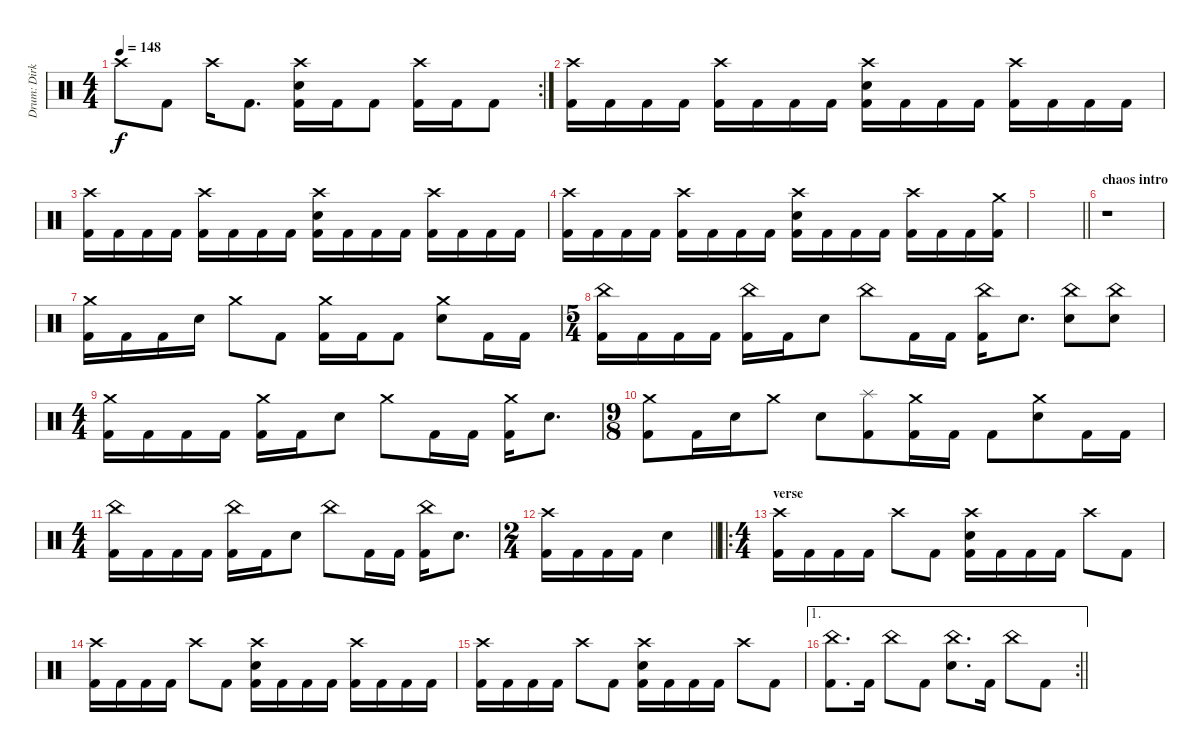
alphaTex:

\track ("Drum: Dirk" "Drum: Dirk") {instrument percussion}
\staff {score}
\articulation defaults
\rc 2
\ts (4 4)
\tempo 148
\clef neutral
\ks c "Crash high (hit)".8{dy f} "Kick (hit) 2".8 "Crash high (hit)".16 "Kick (hit) 2".8{d}
("Crash high (hit)" "Electric Snare (hit)" "Kick (hit) 2").16 "Kick (hit) 2".16 "Kick (hit) 2".8 ("Crash high (hit)" "Kick (hit) 2").16 "Kick (hit) 2".16 "Kick (hit) 2".8 |
("Crash high (hit)" "Kick (hit) 2").16 "Kick (hit) 2".16 "Kick (hit) 2".16 "Kick (hit) 2".16 ("Crash high (hit)" "Kick (hit) 2").16 "Kick (hit) 2".16 "Kick (hit) 2".16 "Kick (hit) 2".16 ("Crash high (hit)" "Electric Snare (hit)" "Kick (hit) 2").16 "Kick (hit) 2".16 "Kick (hit) 2".16 "Kick (hit) 2".16 ("Crash high (hit)" "Kick (hit) 2").16 "Kick (hit) 2".16 "Kick (hit) 2".16 "Kick (hit) 2".16 |
("Crash high (hit)" "Kick (hit) 2").16 "Kick (hit) 2".16 "Kick (hit) 2".16 "Kick (hit) 2".16 ("Crash high (hit)" "Kick (hit) 2").16 "Kick (hit) 2".16 "Kick (hit) 2".16 "Kick (hit) 2".16 ("Crash high (hit)" "Electric Snare (hit)" "Kick (hit) 2").16 "Kick (hit) 2".16 "Kick (hit) 2".16 "Kick (hit) 2".16 ("Crash high (hit)" "Kick (hit) 2").16 "Kick (hit) 2".16 "Kick (hit) 2".16 "Kick (hit) 2".16 |
("Crash high (hit)" "Kick (hit) 2").16 "Kick (hit) 2".16 "Kick (hit) 2".16 "Kick (hit) 2".16 ("Crash high (hit)" "Kick (hit) 2").16 "Kick (hit) 2".16 "Kick (hit) 2".16 "Kick (hit) 2".16 ("Crash high (hit)" "Electric Snare (hit)" "Kick (hit) 2").16 "Kick (hit) 2".16 "Kick (hit) 2".16 "Kick (hit) 2".16 ("Crash high (hit)" "Kick (hit) 2").16 "Kick (hit) 2".16 "Kick (hit) 2".16 ("Crash medium (hit)" "Kick (hit) 2").16 |
\barLineRight lightlight
|
\section ("" "chaos intro")
r.1 |
("Crash medium (hit)" "Kick (hit) 2").16 "Kick (hit) 2".16 "Kick (hit) 2".16 "Electric Snare (hit)".16 "Crash medium (hit)".8 "Kick (hit) 2".8 ("Crash medium (hit)" "Kick (hit) 2").16 "Kick (hit) 2".16 "Kick (hit) 2".8 ("Crash medium (hit)" "Electric Snare (hit)").8 "Kick (hit) 2".16 "Kick (hit) 2".16 |
\ts (5 4)
("China (hit)" "Kick (hit) 2").16 "Kick (hit) 2".16 "Kick (hit) 2".16 "Kick (hit) 2".16 ("China (hit)" "Kick (hit) 2").16 "Kick (hit) 2".16 "Electric Snare (hit)".8 "China (hit)".8 "Kick (hit) 2".16 "Kick (hit) 2".16 ("China (hit)" "Kick (hit) 2").16 "Electric Snare (hit)".8{d} ("China (hit)" "Electric Snare (hit)").8 ("China (hit)" "Electric Snare (hit)").8 |
\ts (4 4)
("Crash medium (hit)" "Kick (hit) 2").16 "Kick (hit) 2".16 "Kick (hit) 2".16 "Kick (hit) 2".16 ("Crash medium (hit)" "Kick (hit) 2").16 "Kick (hit) 2".16 "Electric Snare (hit)".8 "Crash medium (hit)".8 "Kick (hit) 2".16 "Kick (hit) 2".16 ("Crash medium (hit)" "Kick (hit) 2").16 "Electric Snare (hit)".8{d} |
\ts (9 8)
("Crash medium (hit)" "Kick (hit) 2").8 "Kick (hit) 2".16 "Electric Snare (hit)".16 "Crash medium (hit)".8 "Electric Snare (hit)".8 ("Splash (hit)" "Kick (hit) 2").8 ("Crash medium (hit)" "Kick (hit) 2").16 "Kick (hit) 2".16 "Kick (hit) 2".8 ("Crash medium (hit)" "Electric Snare (hit)").8 "Kick (hit) 2".16 "Kick (hit) 2".16 |
\ts (4 4)
("China (hit)" "Kick (hit) 2").16 "Kick (hit) 2".16 "Kick (hit) 2".16 "Kick (hit) 2".16 ("China (hit)" "Kick (hit) 2").16 "Kick (hit) 2".16 "Electric Snare (hit)".8 "China (hit)".8 "Kick (hit) 2".16 "Kick (hit) 2".16 ("China (hit)" "Kick (hit) 2").16 "Electric Snare (hit)".8{d} |
\ts (2 4)
\barLineRight lightlight
("Crash high (hit)" "Kick (hit) 2").16 "Kick (hit) 2".16 "Kick (hit) 2".16 "Kick (hit) 2".16 "Electric Snare (hit)".4 |
\ro
\ts (4 4)
\section ("" "verse")
("Crash high (hit)" "Kick (hit) 2").16 "Kick (hit) 2".16 "Kick (hit) 2".16 "Kick (hit) 2".16 "Crash high (hit)".8 "Kick (hit) 2".8 ("Crash high (hit)" "Electric Snare (hit)" "Kick (hit) 2").16 "Kick (hit) 2".16 "Kick (hit) 2".16 "Kick (hit) 2".16 "Crash high (hit)".8 "Kick (hit) 2".8 |
("Crash high (hit)" "Kick (hit) 2").16 "Kick (hit) 2".16 "Kick (hit) 2".16 "Kick (hit) 2".16 "Crash high (hit)".8 "Kick (hit) 2".8 ("Crash high (hit)" "Electric Snare (hit)" "Kick (hit) 2").16 "Kick (hit) 2".16 "Kick (hit) 2".16 "Kick (hit) 2".16 ("Crash high (hit)" "Kick (hit) 2").16 "Kick (hit) 2".16 "Kick (hit) 2".16 "Kick (hit) 2".16 |
("Crash high (hit)" "Kick (hit) 2").16 "Kick (hit) 2".16 "Kick (hit) 2".16 "Kick (hit) 2".16 "Crash high (hit)".8 "Kick (hit) 2".8 ("Crash high (hit)" "Electric Snare (hit)" "Kick (hit) 2").16 "Kick (hit) 2".16 "Kick (hit) 2".16 "Kick (hit) 2".16 "Crash high (hit)".8 "Kick (hit) 2".8 |
\ae 1
\rc 2
\barLineRight lightlight
("China (hit)" "Kick (hit) 2").8{d} "Kick (hit) 2".16 "China (hit)".8 "Kick (hit) 2".8 ("China (hit)" "Electric Snare (hit)").8{d} "Kick (hit) 2".16 "China (hit)".8 "Kick (hit) 2".8
